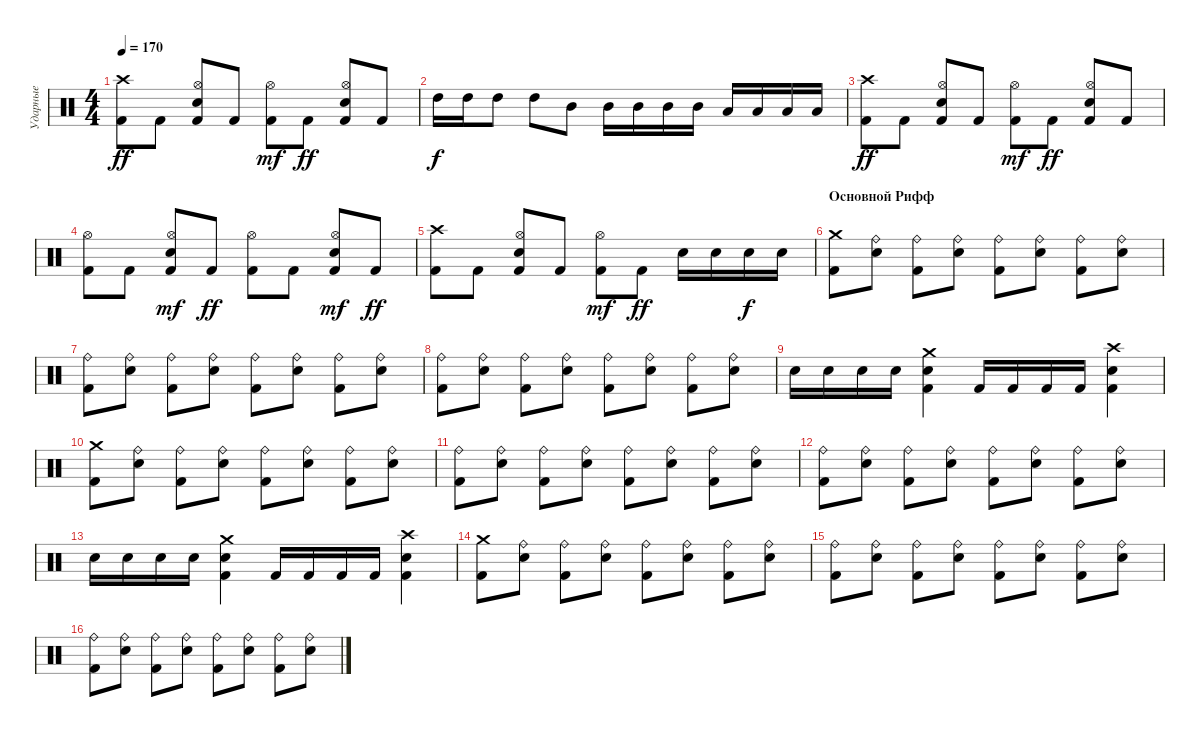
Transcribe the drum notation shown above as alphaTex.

\track ("Ударные" "Ударные") {instrument percussion}
\staff {score}
\articulation defaults
\ts (4 4)
\tempo 170
\clef neutral
\ks c
("Crash high (hit)" "Kick (hit) 2").8{dy ff} "Kick (hit) 2".8 ("Hi-Hat (open)" "Kick (hit) 2" "Electric Snare (hit)").8 "Kick (hit) 2".8 ("Kick (hit) 2" "Hi-Hat (open)").8{dy mf} "Kick (hit) 2".8{dy ff} ("Kick (hit) 2" "Hi-Hat (open)" "Electric Snare (hit)").8 "Kick (hit) 2".8 |
"High Tom (hit)".16{dy f} "High Tom (hit)".16 "High Tom (hit)".8 "High Tom (hit)".8 "Mid Tom (hit)".8 "Mid Tom (hit)".16 "Mid Tom (hit)".16 "Mid Tom (hit)".16 "Mid Tom (hit)".16 "Low Tom (hit)".16 "Low Tom (hit)".16 "Low Tom (hit)".16 "Low Tom (hit)".16 |
("Crash high (hit)" "Kick (hit) 2").8{dy ff} "Kick (hit) 2".8 ("Hi-Hat (open)" "Kick (hit) 2" "Electric Snare (hit)").8 "Kick (hit) 2".8 ("Kick (hit) 2" "Hi-Hat (open)").8{dy mf} "Kick (hit) 2".8{dy ff} ("Kick (hit) 2" "Hi-Hat (open)" "Electric Snare (hit)").8 "Kick (hit) 2".8 |
("Hi-Hat (open)" "Kick (hit) 2").8 "Kick (hit) 2".8 ("Kick (hit) 2" "Electric Snare (hit)" "Hi-Hat (open)").8{dy mf} "Kick (hit) 2".8{dy ff} ("Hi-Hat (open)" "Kick (hit) 2").8 "Kick (hit) 2".8 ("Kick (hit) 2" "Electric Snare (hit)" "Hi-Hat (open)").8{dy mf} "Kick (hit) 2".8{dy ff} |
("Crash high (hit)" "Kick (hit) 2").8 "Kick (hit) 2".8 ("Hi-Hat (open)" "Kick (hit) 2" "Electric Snare (hit)").8 "Kick (hit) 2".8 ("Kick (hit) 2" "Hi-Hat (open)").8{dy mf} "Kick (hit) 2".8{dy ff} "Electric Snare (hit)".16 "Electric Snare (hit)".16 "Electric Snare (hit)".16{dy f} "Electric Snare (hit)".16 |
\section ("" "Основной Рифф")
("Crash medium (hit)" "Kick (hit) 2").8 ("Ride (bell)" "Electric Snare (hit)").8 ("Ride (bell)" "Kick (hit) 2").8 ("Ride (bell)" "Electric Snare (hit)").8 ("Ride (bell)" "Kick (hit) 2").8 ("Ride (bell)" "Electric Snare (hit)").8 ("Ride (bell)" "Kick (hit) 2").8 ("Ride (bell)" "Electric Snare (hit)").8 |
("Ride (bell)" "Kick (hit) 2").8 ("Ride (bell)" "Electric Snare (hit)").8 ("Ride (bell)" "Kick (hit) 2").8 ("Ride (bell)" "Electric Snare (hit)").8 ("Ride (bell)" "Kick (hit) 2").8 ("Ride (bell)" "Electric Snare (hit)").8 ("Ride (bell)" "Kick (hit) 2").8 ("Ride (bell)" "Electric Snare (hit)").8 |
("Ride (bell)" "Kick (hit) 2").8 ("Ride (bell)" "Electric Snare (hit)").8 ("Ride (bell)" "Kick (hit) 2").8 ("Ride (bell)" "Electric Snare (hit)").8 ("Ride (bell)" "Kick (hit) 2").8 ("Ride (bell)" "Electric Snare (hit)").8 ("Ride (bell)" "Kick (hit) 2").8 ("Ride (bell)" "Electric Snare (hit)").8 |
"Electric Snare (hit)".16 "Electric Snare (hit)".16 "Electric Snare (hit)".16 "Electric Snare (hit)".16 ("Electric Snare (hit)" "Kick (hit) 2" "Crash medium (hit)").4 "Kick (hit) 2".16 "Kick (hit) 2".16 "Kick (hit) 2".16 "Kick (hit) 2".16 ("Electric Snare (hit)" "Kick (hit) 2" "Crash high (hit)").4 |
("Crash medium (hit)" "Kick (hit) 2").8 ("Ride (bell)" "Electric Snare (hit)").8 ("Ride (bell)" "Kick (hit) 2").8 ("Ride (bell)" "Electric Snare (hit)").8 ("Ride (bell)" "Kick (hit) 2").8 ("Ride (bell)" "Electric Snare (hit)").8 ("Ride (bell)" "Kick (hit) 2").8 ("Ride (bell)" "Electric Snare (hit)").8 |
("Ride (bell)" "Kick (hit) 2").8 ("Ride (bell)" "Electric Snare (hit)").8 ("Ride (bell)" "Kick (hit) 2").8 ("Ride (bell)" "Electric Snare (hit)").8 ("Ride (bell)" "Kick (hit) 2").8 ("Ride (bell)" "Electric Snare (hit)").8 ("Ride (bell)" "Kick (hit) 2").8 ("Ride (bell)" "Electric Snare (hit)").8 |
("Ride (bell)" "Kick (hit) 2").8 ("Ride (bell)" "Electric Snare (hit)").8 ("Ride (bell)" "Kick (hit) 2").8 ("Ride (bell)" "Electric Snare (hit)").8 ("Ride (bell)" "Kick (hit) 2").8 ("Ride (bell)" "Electric Snare (hit)").8 ("Ride (bell)" "Kick (hit) 2").8 ("Ride (bell)" "Electric Snare (hit)").8 |
"Electric Snare (hit)".16 "Electric Snare (hit)".16 "Electric Snare (hit)".16 "Electric Snare (hit)".16 ("Electric Snare (hit)" "Kick (hit) 2" "Crash medium (hit)").4 "Kick (hit) 2".16 "Kick (hit) 2".16 "Kick (hit) 2".16 "Kick (hit) 2".16 ("Electric Snare (hit)" "Kick (hit) 2" "Crash high (hit)").4 |
("Crash medium (hit)" "Kick (hit) 2").8 ("Ride (bell)" "Electric Snare (hit)").8 ("Ride (bell)" "Kick (hit) 2").8 ("Ride (bell)" "Electric Snare (hit)").8 ("Ride (bell)" "Kick (hit) 2").8 ("Ride (bell)" "Electric Snare (hit)").8 ("Ride (bell)" "Kick (hit) 2").8 ("Ride (bell)" "Electric Snare (hit)").8 |
("Ride (bell)" "Kick (hit) 2").8 ("Ride (bell)" "Electric Snare (hit)").8 ("Ride (bell)" "Kick (hit) 2").8 ("Ride (bell)" "Electric Snare (hit)").8 ("Ride (bell)" "Kick (hit) 2").8 ("Ride (bell)" "Electric Snare (hit)").8 ("Ride (bell)" "Kick (hit) 2").8 ("Ride (bell)" "Electric Snare (hit)").8 |
("Ride (bell)" "Kick (hit) 2").8 ("Ride (bell)" "Electric Snare (hit)").8 ("Ride (bell)" "Kick (hit) 2").8 ("Ride (bell)" "Electric Snare (hit)").8 ("Ride (bell)" "Kick (hit) 2").8 ("Ride (bell)" "Electric Snare (hit)").8 ("Ride (bell)" "Kick (hit) 2").8 ("Ride (bell)" "Electric Snare (hit)").8
